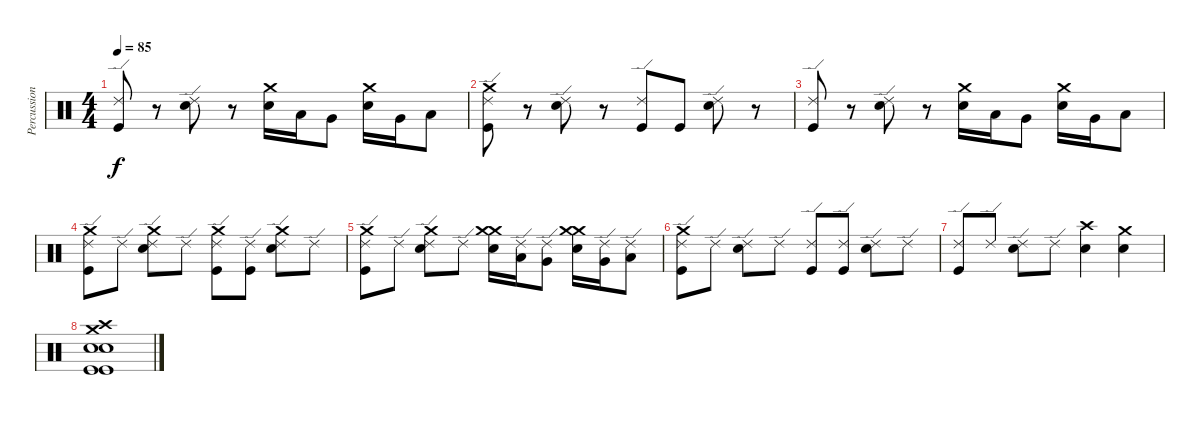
\track ("Percussions" "Percussion") {instrument percussion}
\staff {score}
\articulation defaults
\ts (4 4)
\tempo 85
\clef neutral
\ks c
("Ride (edge) 2" "Kick (hit)").8{dy f} r.8 ("Ride (edge) 2" "Electric Snare (hit)").8 r.8 ("Crash medium (hit)" "Electric Snare (hit)").16 "Low Tom (hit)".16 "Very Low Tom (hit)".8 ("Crash medium (hit)" "Electric Snare (hit)").16 "Very Low Tom (hit)".16 "Low Floor Tom (hit)".8 |
("Ride (edge) 2" "Crash medium (hit)" "Kick (hit)").8 r.8 ("Ride (edge) 2" "Electric Snare (hit)").8 r.8 ("Ride (edge) 2" "Kick (hit)").8 "Kick (hit)".8 ("Ride (edge) 2" "Electric Snare (hit)").8 r.8 |
("Ride (edge) 2" "Kick (hit)").8 r.8 ("Ride (edge) 2" "Electric Snare (hit)").8 r.8 ("Crash medium (hit)" "Electric Snare (hit)").16 "Low Tom (hit)".16 "Very Low Tom (hit)".8 ("Crash medium (hit)" "Electric Snare (hit)").16 "Very Low Tom (hit)".16 "Low Floor Tom (hit)".8 |
("Ride (edge) 2" "Crash medium (hit)" "Kick (hit)").8 "Ride (edge) 2".8 ("Ride (edge) 2" "Crash medium (hit)" "Electric Snare (hit)").8 "Ride (edge) 2".8 ("Ride (edge) 2" "Crash medium (hit)" "Kick (hit)").8 ("Ride (edge) 2" "Kick (hit)").8 ("Ride (edge) 2" "Crash medium (hit)" "Electric Snare (hit)").8 "Ride (edge) 2".8 |
("Ride (edge) 2" "Crash medium (hit)" "Kick (hit)").8 "Ride (edge) 2".8 ("Ride (edge) 2" "Crash medium (hit)" "Electric Snare (hit)").8 "Ride (edge) 2".8 ("Crash medium (hit)" "Crash medium (hit)" "Electric Snare (hit)").16 ("Ride (edge) 2" "Low Tom (hit)").16 ("Ride (edge) 2" "Very Low Tom (hit)").8 ("Crash medium (hit)" "Crash medium (hit)" "Electric Snare (hit)").16 ("Ride (edge) 2" "Very Low Tom (hit)").16 ("Ride (edge) 2" "Low Floor Tom (hit)").8 |
("Ride (edge) 2" "Crash medium (hit)" "Kick (hit)").8 "Ride (edge) 2".8 ("Ride (edge) 2" "Electric Snare (hit)").8 "Ride (edge) 2".8 ("Ride (edge) 2" "Kick (hit)").8 ("Ride (edge) 2" "Kick (hit)").8 ("Ride (edge) 2" "Electric Snare (hit)").8 "Ride (edge) 2".8 |
("Ride (edge) 2" "Kick (hit)").8 "Ride (edge) 2".8 ("Ride (edge) 2" "Electric Snare (hit)").8 "Ride (edge) 2".8 ("Crash high (hit)" "Electric Snare (hit)").4 ("Crash medium (hit)" "Electric Snare (hit)").4 |
("Crash high (hit)" "Crash medium (hit)" "Electric Snare (hit)" "Electric Snare (hit)" "Kick (hit)" "Kick (hit)").1
